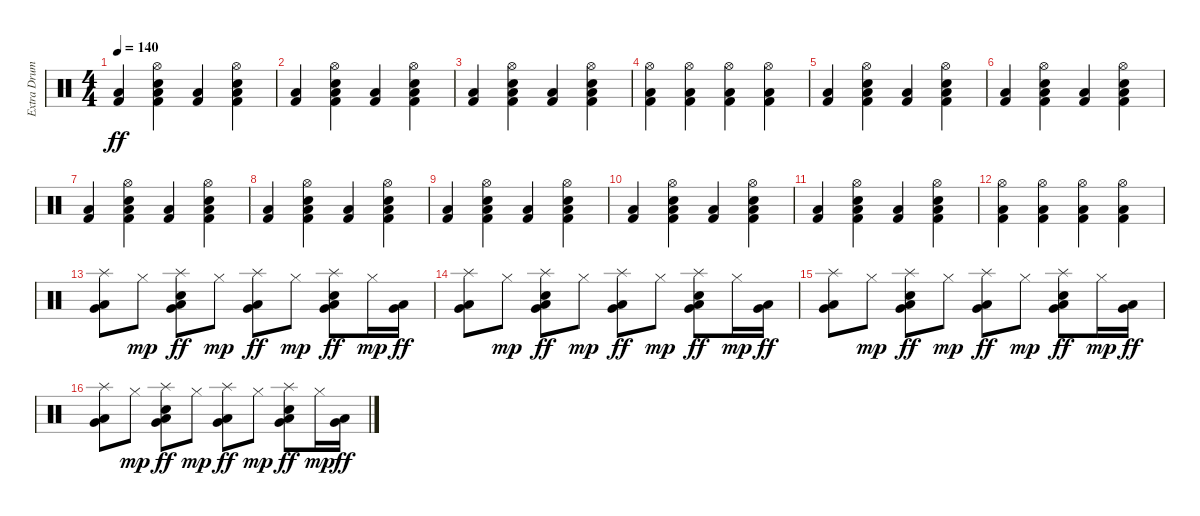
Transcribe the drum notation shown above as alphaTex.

\track ("Extra Drums" "Extra Drum") {instrument percussion}
\staff {score}
\articulation defaults
\ts (4 4)
\tempo 140
\clef neutral
\ks c
("Low Floor Tom (hit)" "Kick (hit) 2").4{dy ff} ("Hi-Hat (open)" "Electric Snare (hit)" "Low Floor Tom (hit)" "Kick (hit) 2").4 ("Low Floor Tom (hit)" "Kick (hit) 2").4 ("Hi-Hat (open)" "Electric Snare (hit)" "Low Floor Tom (hit)" "Kick (hit) 2").4 |
("Low Floor Tom (hit)" "Kick (hit) 2").4 ("Hi-Hat (open)" "Electric Snare (hit)" "Low Floor Tom (hit)" "Kick (hit) 2").4 ("Low Floor Tom (hit)" "Kick (hit) 2").4 ("Hi-Hat (open)" "Electric Snare (hit)" "Low Floor Tom (hit)" "Kick (hit) 2").4 |
("Low Floor Tom (hit)" "Kick (hit) 2").4 ("Hi-Hat (open)" "Electric Snare (hit)" "Low Floor Tom (hit)" "Kick (hit) 2").4 ("Low Floor Tom (hit)" "Kick (hit) 2").4 ("Hi-Hat (open)" "Electric Snare (hit)" "Low Floor Tom (hit)" "Kick (hit) 2").4 |
("Hi-Hat (open)" "Low Floor Tom (hit)" "Kick (hit) 2").4 ("Hi-Hat (open)" "Low Floor Tom (hit)" "Kick (hit) 2").4 ("Hi-Hat (open)" "Low Floor Tom (hit)" "Kick (hit) 2").4 ("Hi-Hat (open)" "Low Floor Tom (hit)" "Kick (hit) 2").4 |
("Low Floor Tom (hit)" "Kick (hit) 2").4 ("Hi-Hat (open)" "Electric Snare (hit)" "Low Floor Tom (hit)" "Kick (hit) 2").4 ("Low Floor Tom (hit)" "Kick (hit) 2").4 ("Hi-Hat (open)" "Electric Snare (hit)" "Low Floor Tom (hit)" "Kick (hit) 2").4 |
("Low Floor Tom (hit)" "Kick (hit) 2").4 ("Hi-Hat (open)" "Electric Snare (hit)" "Low Floor Tom (hit)" "Kick (hit) 2").4 ("Low Floor Tom (hit)" "Kick (hit) 2").4 ("Hi-Hat (open)" "Electric Snare (hit)" "Low Floor Tom (hit)" "Kick (hit) 2").4 |
("Low Floor Tom (hit)" "Kick (hit) 2").4 ("Hi-Hat (open)" "Electric Snare (hit)" "Low Floor Tom (hit)" "Kick (hit) 2").4 ("Low Floor Tom (hit)" "Kick (hit) 2").4 ("Hi-Hat (open)" "Electric Snare (hit)" "Low Floor Tom (hit)" "Kick (hit) 2").4 |
("Low Floor Tom (hit)" "Kick (hit) 2").4 ("Hi-Hat (open)" "Electric Snare (hit)" "Low Floor Tom (hit)" "Kick (hit) 2").4 ("Low Floor Tom (hit)" "Kick (hit) 2").4 ("Hi-Hat (open)" "Electric Snare (hit)" "Low Floor Tom (hit)" "Kick (hit) 2").4 |
("Low Floor Tom (hit)" "Kick (hit) 2").4 ("Hi-Hat (open)" "Electric Snare (hit)" "Low Floor Tom (hit)" "Kick (hit) 2").4 ("Low Floor Tom (hit)" "Kick (hit) 2").4 ("Hi-Hat (open)" "Electric Snare (hit)" "Low Floor Tom (hit)" "Kick (hit) 2").4 |
("Low Floor Tom (hit)" "Kick (hit) 2").4 ("Hi-Hat (open)" "Electric Snare (hit)" "Low Floor Tom (hit)" "Kick (hit) 2").4 ("Low Floor Tom (hit)" "Kick (hit) 2").4 ("Hi-Hat (open)" "Electric Snare (hit)" "Low Floor Tom (hit)" "Kick (hit) 2").4 |
("Low Floor Tom (hit)" "Kick (hit) 2").4 ("Hi-Hat (open)" "Electric Snare (hit)" "Low Floor Tom (hit)" "Kick (hit) 2").4 ("Low Floor Tom (hit)" "Kick (hit) 2").4 ("Hi-Hat (open)" "Electric Snare (hit)" "Low Floor Tom (hit)" "Kick (hit) 2").4 |
("Hi-Hat (open)" "Low Floor Tom (hit)" "Kick (hit) 2").4 ("Hi-Hat (open)" "Low Floor Tom (hit)" "Kick (hit) 2").4 ("Hi-Hat (open)" "Low Floor Tom (hit)" "Kick (hit) 2").4 ("Hi-Hat (open)" "Low Floor Tom (hit)" "Kick (hit) 2").4 |
("Splash (hit)" "Low Floor Tom (hit)" "Very Low Tom (hit)").8 "Hi-Hat (closed)".8{dy mp} ("Splash (hit)" "Electric Snare (hit)" "Low Floor Tom (hit)" "Very Low Tom (hit)").8{dy ff} "Hi-Hat (closed)".8{dy mp} ("Splash (hit)" "Low Floor Tom (hit)" "Very Low Tom (hit)").8{dy ff} "Hi-Hat (closed)".8{dy mp} ("Splash (hit)" "Electric Snare (hit)" "Low Floor Tom (hit)" "Very Low Tom (hit)").8{dy ff} "Hi-Hat (closed)".16{dy mp} ("Low Floor Tom (hit)" "Very Low Tom (hit)").16{dy ff} |
("Splash (hit)" "Low Floor Tom (hit)" "Very Low Tom (hit)").8 "Hi-Hat (closed)".8{dy mp} ("Splash (hit)" "Electric Snare (hit)" "Low Floor Tom (hit)" "Very Low Tom (hit)").8{dy ff} "Hi-Hat (closed)".8{dy mp} ("Splash (hit)" "Low Floor Tom (hit)" "Very Low Tom (hit)").8{dy ff} "Hi-Hat (closed)".8{dy mp} ("Splash (hit)" "Electric Snare (hit)" "Low Floor Tom (hit)" "Very Low Tom (hit)").8{dy ff} "Hi-Hat (closed)".16{dy mp} ("Low Floor Tom (hit)" "Very Low Tom (hit)").16{dy ff} |
("Splash (hit)" "Low Floor Tom (hit)" "Very Low Tom (hit)").8 "Hi-Hat (closed)".8{dy mp} ("Splash (hit)" "Electric Snare (hit)" "Low Floor Tom (hit)" "Very Low Tom (hit)").8{dy ff} "Hi-Hat (closed)".8{dy mp} ("Splash (hit)" "Low Floor Tom (hit)" "Very Low Tom (hit)").8{dy ff} "Hi-Hat (closed)".8{dy mp} ("Splash (hit)" "Electric Snare (hit)" "Low Floor Tom (hit)" "Very Low Tom (hit)").8{dy ff} "Hi-Hat (closed)".16{dy mp} ("Low Floor Tom (hit)" "Very Low Tom (hit)").16{dy ff} |
("Splash (hit)" "Low Floor Tom (hit)" "Very Low Tom (hit)").8 "Hi-Hat (closed)".8{dy mp} ("Splash (hit)" "Electric Snare (hit)" "Low Floor Tom (hit)" "Very Low Tom (hit)").8{dy ff} "Hi-Hat (closed)".8{dy mp} ("Splash (hit)" "Low Floor Tom (hit)" "Very Low Tom (hit)").8{dy ff} "Hi-Hat (closed)".8{dy mp} ("Splash (hit)" "Electric Snare (hit)" "Low Floor Tom (hit)" "Very Low Tom (hit)").8{dy ff} "Hi-Hat (closed)".16{dy mp} ("Low Floor Tom (hit)" "Very Low Tom (hit)").16{dy ff}
